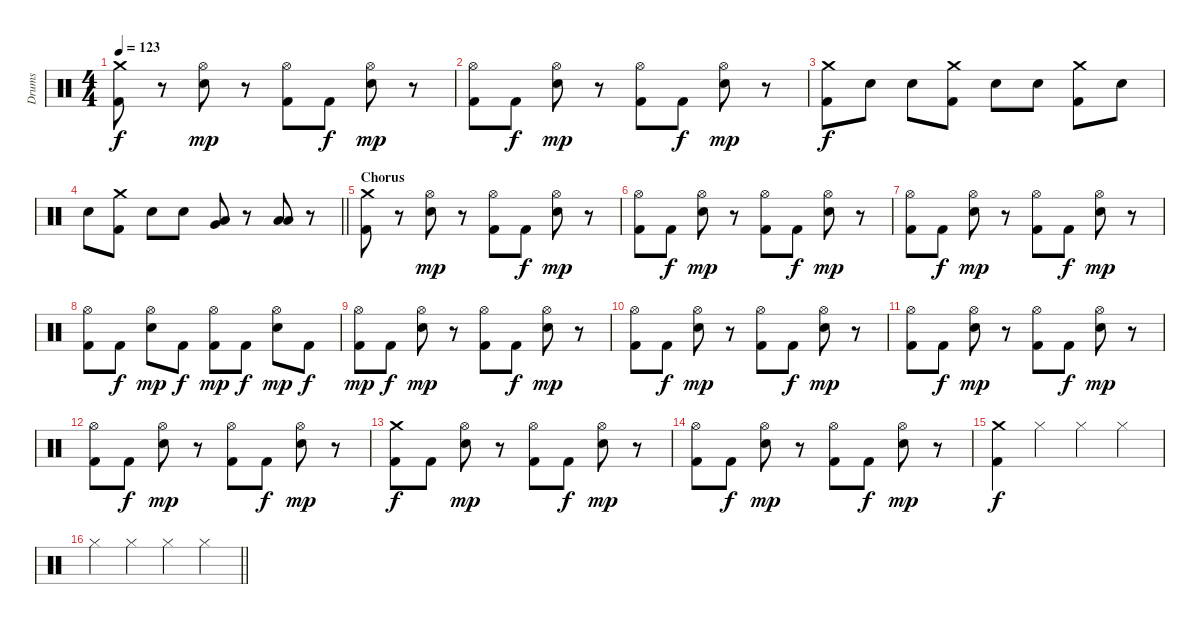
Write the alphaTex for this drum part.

\track ("Drums" "Drums") {instrument percussion}
\staff {score}
\articulation defaults
\ts (4 4)
\tempo 123
\clef neutral
\ks c
("Crash medium (hit)" "Kick (hit) 2").8{dy f} r.8 ("Hi-Hat (open)" "Electric Snare (hit)").8{dy mp} r.8 ("Hi-Hat (open)" "Kick (hit) 2").8 "Kick (hit) 2".8{dy f} ("Hi-Hat (open)" "Electric Snare (hit)").8{dy mp} r.8 |
("Hi-Hat (open)" "Kick (hit) 2").8 "Kick (hit) 2".8{dy f} ("Hi-Hat (open)" "Electric Snare (hit)").8{dy mp} r.8 ("Hi-Hat (open)" "Kick (hit) 2").8 "Kick (hit) 2".8{dy f} ("Hi-Hat (open)" "Electric Snare (hit)").8{dy mp} r.8 |
("Crash medium (hit)" "Kick (hit) 2").8{dy f} "Snare (hit) 2".8 "Snare (hit) 2".8 ("Crash medium (hit)" "Kick (hit) 2").8 "Snare (hit) 2".8 "Snare (hit) 2".8 ("Crash medium (hit)" "Kick (hit) 2").8 "Snare (hit) 2".8 |
\barLineRight lightlight "Snare (hit) 2".8
("Crash medium (hit)" "Kick (hit) 2").8 "Snare (hit) 2".8 "Snare (hit) 2".8 ("Very Low Tom (hit)" "Low Floor Tom (hit)").8 r.8 ("Low Tom (hit)" "Low Floor Tom (hit)").8 r.8 |
\section ("" "Chorus")
("Crash medium (hit)" "Kick (hit) 2").8 r.8 ("Hi-Hat (open)" "Electric Snare (hit)").8{dy mp} r.8 ("Hi-Hat (open)" "Kick (hit) 2").8 "Kick (hit) 2".8{dy f} ("Hi-Hat (open)" "Electric Snare (hit)").8{dy mp} r.8 |
("Hi-Hat (open)" "Kick (hit) 2").8 "Kick (hit) 2".8{dy f} ("Hi-Hat (open)" "Electric Snare (hit)").8{dy mp} r.8 ("Hi-Hat (open)" "Kick (hit) 2").8 "Kick (hit) 2".8{dy f} ("Hi-Hat (open)" "Electric Snare (hit)").8{dy mp} r.8 |
("Hi-Hat (open)" "Kick (hit) 2").8 "Kick (hit) 2".8{dy f} ("Hi-Hat (open)" "Electric Snare (hit)").8{dy mp} r.8 ("Hi-Hat (open)" "Kick (hit) 2").8 "Kick (hit) 2".8{dy f} ("Hi-Hat (open)" "Electric Snare (hit)").8{dy mp} r.8 |
("Hi-Hat (open)" "Kick (hit) 2").8 "Kick (hit) 2".8{dy f} ("Hi-Hat (open)" "Electric Snare (hit)").8{dy mp} "Kick (hit) 2".8{dy f} ("Hi-Hat (open)" "Kick (hit) 2").8{dy mp} "Kick (hit) 2".8{dy f} ("Hi-Hat (open)" "Electric Snare (hit)").8{dy mp} "Kick (hit) 2".8{dy f} |
("Hi-Hat (open)" "Kick (hit) 2").8{dy mp} "Kick (hit) 2".8{dy f} ("Hi-Hat (open)" "Electric Snare (hit)").8{dy mp} r.8 ("Hi-Hat (open)" "Kick (hit) 2").8 "Kick (hit) 2".8{dy f} ("Hi-Hat (open)" "Electric Snare (hit)").8{dy mp} r.8 |
("Hi-Hat (open)" "Kick (hit) 2").8 "Kick (hit) 2".8{dy f} ("Hi-Hat (open)" "Electric Snare (hit)").8{dy mp} r.8 ("Hi-Hat (open)" "Kick (hit) 2").8 "Kick (hit) 2".8{dy f} ("Hi-Hat (open)" "Electric Snare (hit)").8{dy mp} r.8 |
("Hi-Hat (open)" "Kick (hit) 2").8 "Kick (hit) 2".8{dy f} ("Hi-Hat (open)" "Electric Snare (hit)").8{dy mp} r.8 ("Hi-Hat (open)" "Kick (hit) 2").8 "Kick (hit) 2".8{dy f} ("Hi-Hat (open)" "Electric Snare (hit)").8{dy mp} r.8 |
("Hi-Hat (open)" "Kick (hit) 2").8 "Kick (hit) 2".8{dy f} ("Hi-Hat (open)" "Electric Snare (hit)").8{dy mp} r.8 ("Hi-Hat (open)" "Kick (hit) 2").8 "Kick (hit) 2".8{dy f} ("Hi-Hat (open)" "Electric Snare (hit)").8{dy mp} r.8 |
("Crash medium (hit)" "Kick (hit) 2").8{dy f} "Kick (hit) 2".8 ("Hi-Hat (open)" "Electric Snare (hit)").8{dy mp} r.8 ("Hi-Hat (open)" "Kick (hit) 2").8 "Kick (hit) 2".8{dy f} ("Hi-Hat (open)" "Electric Snare (hit)").8{dy mp} r.8 |
("Hi-Hat (open)" "Kick (hit) 2").8 "Kick (hit) 2".8{dy f} ("Hi-Hat (open)" "Electric Snare (hit)").8{dy mp} r.8 ("Hi-Hat (open)" "Kick (hit) 2").8 "Kick (hit) 2".8{dy f} ("Hi-Hat (open)" "Electric Snare (hit)").8{dy mp} r.8 |
("Crash medium (hit)" "Kick (hit) 2").4{dy f} "Hi-Hat (closed)".4 "Hi-Hat (closed)".4 "Hi-Hat (closed)".4 |
\barLineRight lightlight "Hi-Hat (closed)".4 "Hi-Hat (closed)".4 "Hi-Hat (closed)".4 "Hi-Hat (closed)".4
